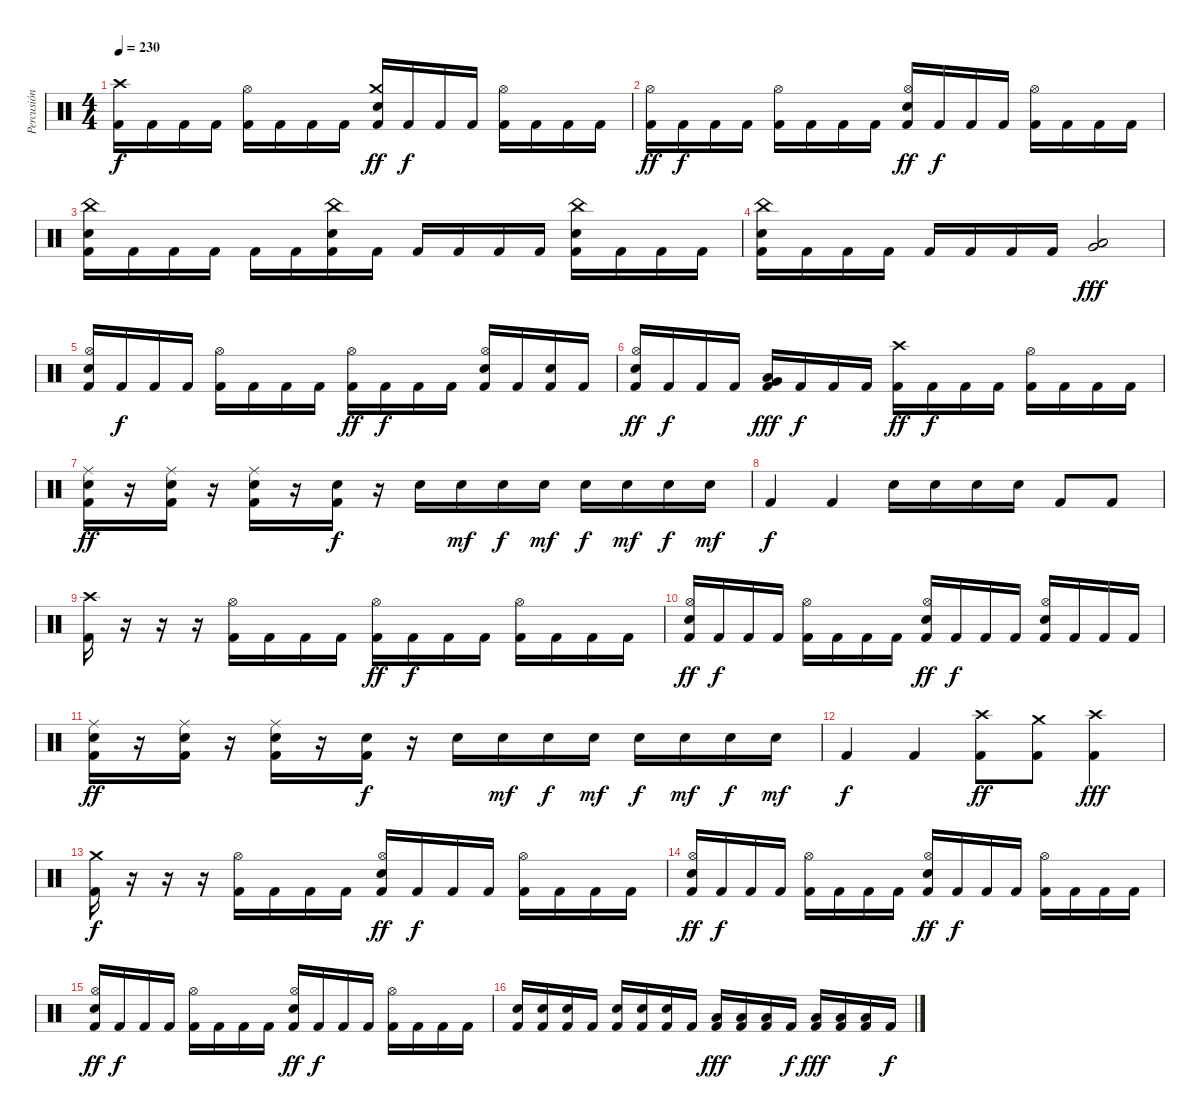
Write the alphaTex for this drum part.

\track ("Percusión" "Percusión") {instrument percussion}
\staff {score}
\articulation defaults
\ts (4 4)
\tempo 230
\clef neutral
\ks c
("Crash high (hit)" "Kick (hit) 2").16{dy f} "Kick (hit) 2".16 "Kick (hit) 2".16 "Kick (hit) 2".16 ("Hi-Hat (open)" "Kick (hit) 2").16 "Kick (hit) 2".16 "Kick (hit) 2".16 "Kick (hit) 2".16 ("Crash medium (hit)" "Kick (hit) 2" "Snare (hit) 2").16{dy ff} "Kick (hit) 2".16{dy f} "Kick (hit) 2".16 "Kick (hit) 2".16 ("Hi-Hat (open)" "Kick (hit) 2").16 "Kick (hit) 2".16 "Kick (hit) 2".16 "Kick (hit) 2".16 |
("Hi-Hat (open)" "Kick (hit) 2").16{dy ff} "Kick (hit) 2".16{dy f} "Kick (hit) 2".16 "Kick (hit) 2".16 ("Hi-Hat (open)" "Kick (hit) 2").16 "Kick (hit) 2".16 "Kick (hit) 2".16 "Kick (hit) 2".16 ("Hi-Hat (open)" "Kick (hit) 2" "Snare (hit) 2").16{dy ff} "Kick (hit) 2".16{dy f} "Kick (hit) 2".16 "Kick (hit) 2".16 ("Hi-Hat (open)" "Kick (hit) 2").16 "Kick (hit) 2".16 "Kick (hit) 2".16 "Kick (hit) 2".16 |
("China (hit)" "Kick (hit) 2" "Snare (hit) 2").16 "Kick (hit) 2".16 "Kick (hit) 2".16 "Kick (hit) 2".16 "Kick (hit) 2".16 "Kick (hit) 2".16 ("China (hit)" "Kick (hit) 2" "Snare (hit) 2").16 "Kick (hit) 2".16 "Kick (hit) 2".16 "Kick (hit) 2".16 "Kick (hit) 2".16 "Kick (hit) 2".16 ("China (hit)" "Kick (hit) 2" "Snare (hit) 2").16 "Kick (hit) 2".16 "Kick (hit) 2".16 "Kick (hit) 2".16 |
("China (hit)" "Kick (hit) 2" "Snare (hit) 2").16 "Kick (hit) 2".16 "Kick (hit) 2".16 "Kick (hit) 2".16 "Kick (hit) 2".16 "Kick (hit) 2".16 "Kick (hit) 2".16 "Kick (hit) 2".16 ("Very Low Tom (hit)" "Low Floor Tom (hit)").2{dy fff} |
("Hi-Hat (open)" "Kick (hit) 2" "Snare (hit) 2").16 "Kick (hit) 2".16{dy f} "Kick (hit) 2".16 "Kick (hit) 2".16 ("Hi-Hat (open)" "Kick (hit) 2").16 "Kick (hit) 2".16 "Kick (hit) 2".16 "Kick (hit) 2".16 ("Hi-Hat (open)" "Kick (hit) 2").16{dy ff} "Kick (hit) 2".16{dy f} "Kick (hit) 2".16 "Kick (hit) 2".16 ("Hi-Hat (open)" "Kick (hit) 2" "Snare (hit) 2").16 "Kick (hit) 2".16 ("Kick (hit) 2" "Snare (hit) 2").16 "Kick (hit) 2".16 |
("Hi-Hat (open)" "Kick (hit) 2" "Snare (hit) 2").16{dy ff} "Kick (hit) 2".16{dy f} "Kick (hit) 2".16 "Kick (hit) 2".16 ("Kick (hit) 2" "Very Low Tom (hit)" "Low Floor Tom (hit)").16{dy fff} "Kick (hit) 2".16{dy f} "Kick (hit) 2".16 "Kick (hit) 2".16 ("Crash high (hit)" "Kick (hit) 2").16{dy ff} "Kick (hit) 2".16{dy f} "Kick (hit) 2".16 "Kick (hit) 2".16 ("Hi-Hat (open)" "Kick (hit) 2").16 "Kick (hit) 2".16 "Kick (hit) 2".16 "Kick (hit) 2".16 |
("Ride (middle)" "Kick (hit) 2" "Snare (hit) 2").16{dy ff} r.16 ("Ride (middle)" "Kick (hit) 2" "Snare (hit) 2").16 r.16 ("Ride (middle)" "Kick (hit) 2" "Snare (hit) 2").16 r.16 ("Kick (hit) 2" "Snare (hit) 2").16{dy f} r.16 "Snare (hit) 2".16 "Snare (hit) 2".16{dy mf} "Snare (hit) 2".16{dy f} "Snare (hit) 2".16{dy mf} "Snare (hit) 2".16{dy f} "Snare (hit) 2".16{dy mf} "Snare (hit) 2".16{dy f} "Snare (hit) 2".16{dy mf} |
"Kick (hit) 2".4{dy f} "Kick (hit) 2".4 "Snare (hit) 2".16 "Snare (hit) 2".16 "Snare (hit) 2".16 "Snare (hit) 2".16 "Kick (hit) 2".8 "Kick (hit) 2".8 |
("Crash high (hit)" "Kick (hit) 2").16 r.16 r.16 r.16 ("Hi-Hat (open)" "Kick (hit) 2").16 "Kick (hit) 2".16 "Kick (hit) 2".16 "Kick (hit) 2".16 ("Hi-Hat (open)" "Kick (hit) 2").16{dy ff} "Kick (hit) 2".16{dy f} "Kick (hit) 2".16 "Kick (hit) 2".16 ("Hi-Hat (open)" "Kick (hit) 2").16 "Kick (hit) 2".16 "Kick (hit) 2".16 "Kick (hit) 2".16 |
("Hi-Hat (open)" "Kick (hit) 2" "Snare (hit) 2").16{dy ff} "Kick (hit) 2".16{dy f} "Kick (hit) 2".16 "Kick (hit) 2".16 ("Hi-Hat (open)" "Kick (hit) 2").16 "Kick (hit) 2".16 "Kick (hit) 2".16 "Kick (hit) 2".16 ("Hi-Hat (open)" "Kick (hit) 2" "Snare (hit) 2").16{dy ff} "Kick (hit) 2".16{dy f} "Kick (hit) 2".16 "Kick (hit) 2".16 ("Hi-Hat (open)" "Kick (hit) 2" "Snare (hit) 2").16 "Kick (hit) 2".16 "Kick (hit) 2".16 "Kick (hit) 2".16 |
("Ride (middle)" "Kick (hit) 2" "Snare (hit) 2").16{dy ff} r.16 ("Ride (middle)" "Kick (hit) 2" "Snare (hit) 2").16 r.16 ("Ride (middle)" "Kick (hit) 2" "Snare (hit) 2").16 r.16 ("Kick (hit) 2" "Snare (hit) 2").16{dy f} r.16 "Snare (hit) 2".16 "Snare (hit) 2".16{dy mf} "Snare (hit) 2".16{dy f} "Snare (hit) 2".16{dy mf} "Snare (hit) 2".16{dy f} "Snare (hit) 2".16{dy mf} "Snare (hit) 2".16{dy f} "Snare (hit) 2".16{dy mf} |
"Kick (hit) 2".4{dy f} "Kick (hit) 2".4 ("Crash high (hit)" "Kick (hit) 2").8{dy ff} ("Crash medium (hit)" "Kick (hit) 2").8 ("Crash high (hit)" "Kick (hit) 2").4{dy fff} |
("Crash medium (hit)" "Kick (hit) 2").16{dy f} r.16 r.16 r.16 ("Hi-Hat (open)" "Kick (hit) 2").16 "Kick (hit) 2".16 "Kick (hit) 2".16 "Kick (hit) 2".16 ("Hi-Hat (open)" "Kick (hit) 2" "Snare (hit) 2").16{dy ff} "Kick (hit) 2".16{dy f} "Kick (hit) 2".16 "Kick (hit) 2".16 ("Hi-Hat (open)" "Kick (hit) 2").16 "Kick (hit) 2".16 "Kick (hit) 2".16 "Kick (hit) 2".16 |
("Hi-Hat (open)" "Kick (hit) 2" "Snare (hit) 2").16{dy ff} "Kick (hit) 2".16{dy f} "Kick (hit) 2".16 "Kick (hit) 2".16 ("Hi-Hat (open)" "Kick (hit) 2").16 "Kick (hit) 2".16 "Kick (hit) 2".16 "Kick (hit) 2".16 ("Hi-Hat (open)" "Kick (hit) 2" "Snare (hit) 2").16{dy ff} "Kick (hit) 2".16{dy f} "Kick (hit) 2".16 "Kick (hit) 2".16 ("Hi-Hat (open)" "Kick (hit) 2").16 "Kick (hit) 2".16 "Kick (hit) 2".16 "Kick (hit) 2".16 |
("Hi-Hat (open)" "Kick (hit) 2" "Snare (hit) 2").16{dy ff} "Kick (hit) 2".16{dy f} "Kick (hit) 2".16 "Kick (hit) 2".16 ("Hi-Hat (open)" "Kick (hit) 2").16 "Kick (hit) 2".16 "Kick (hit) 2".16 "Kick (hit) 2".16 ("Hi-Hat (open)" "Kick (hit) 2" "Snare (hit) 2").16{dy ff} "Kick (hit) 2".16{dy f} "Kick (hit) 2".16 "Kick (hit) 2".16 ("Hi-Hat (open)" "Kick (hit) 2").16 "Kick (hit) 2".16 "Kick (hit) 2".16 "Kick (hit) 2".16 |
("Kick (hit) 2" "Snare (hit) 2").16 ("Kick (hit) 2" "Snare (hit) 2").16 ("Kick (hit) 2" "Snare (hit) 2").16 "Kick (hit) 2".16 ("Kick (hit) 2" "Snare (hit) 2").16 ("Kick (hit) 2" "Snare (hit) 2").16 ("Kick (hit) 2" "Snare (hit) 2").16 "Kick (hit) 2".16 ("Kick (hit) 2" "Low Tom (hit)").16{dy fff} ("Kick (hit) 2" "Low Tom (hit)").16 ("Kick (hit) 2" "Low Tom (hit)").16 "Kick (hit) 2".16{dy f} ("Kick (hit) 2" "Low Tom (hit)").16{dy fff} ("Kick (hit) 2" "Low Tom (hit)").16 ("Kick (hit) 2" "Low Tom (hit)").16 "Kick (hit) 2".16{dy f}
